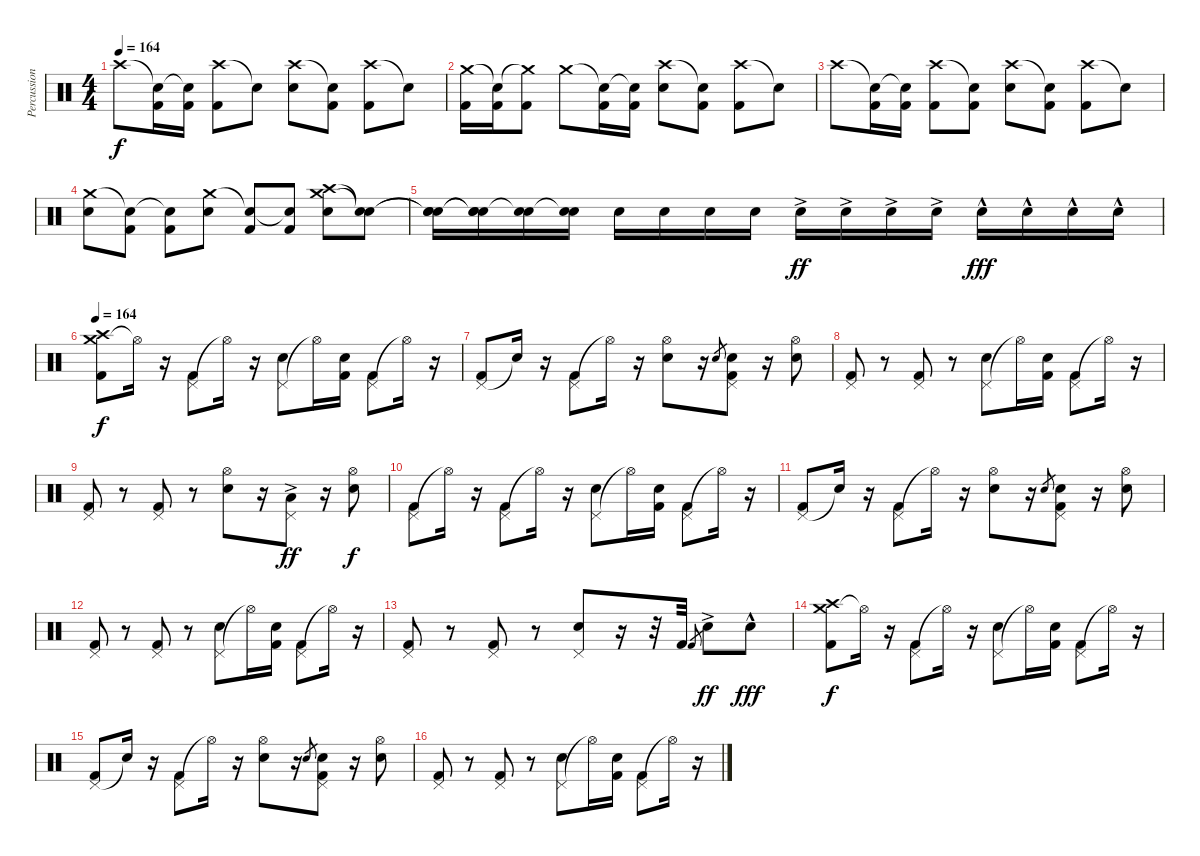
\track ("Percussion" "Percussion") {instrument percussion bank 177}
\staff {score}
\articulation defaults
\ts (4 4)
\tempo 164
\clef neutral
\ks c "Crash high (hit)".8{dy f}
("Snare (hit)"{t} "Kick (hit) 2").16 ("Snare (hit)"{t} "Kick (hit) 2").16 ("Crash high (hit)" "Kick (hit) 2").8 "Snare (hit)"{t}.8 ("Crash high (hit)" "Snare (hit) 2").8 ("Snare (hit)"{t} "Kick (hit) 2").8 ("Crash high (hit)" "Kick (hit) 2").8 "Snare (hit)"{t}.8 |
("Crash medium (hit)" "Kick (hit) 2").16 ("Snare (hit)"{t} "Kick (hit) 2").16 ("Crash medium (hit)"{t} "Kick (hit) 2").8 "Crash medium (hit)".8 ("Snare (hit)"{t} "Kick (hit) 2").16 ("Snare (hit)"{t} "Kick (hit) 2").16 ("Crash high (hit)" "Snare (hit) 2").8 ("Snare (hit)"{t} "Kick (hit) 2").8 ("Crash high (hit)" "Kick (hit) 2").8 "Snare (hit)"{t}.8 |
"Crash high (hit)".8 ("Snare (hit)"{t} "Kick (hit) 2").16 ("Snare (hit)"{t} "Kick (hit) 2").16 ("Crash high (hit)" "Kick (hit) 2").8 ("Snare (hit)"{t} "Kick (hit) 2").8 ("Crash high (hit)" "Snare (hit) 2").8 ("Snare (hit)"{t} "Kick (hit) 2").8 ("Crash high (hit)" "Kick (hit) 2").8 "Snare (hit)"{t}.8 |
("Crash medium (hit)" "Snare (hit) 2").8 ("Snare (hit)"{t} "Kick (hit) 2").8 ("Snare (hit)"{t} "Kick (hit) 2").8 ("Crash medium (hit)" "Snare (hit) 2").8 ("Snare (hit)"{t} "Kick (hit) 2").8 ("Snare (hit)"{t} "Kick (hit) 2").8 ("Crash medium (hit)" "Crash high (hit)" "Snare (hit) 2").8 ("Snare (hit)"{t} "Snare (hit)"{t}).8 |
("Snare (hit)"{t} "Snare (hit)"{t} "Snare (hit) 2").16 ("Snare (hit)"{t} "Snare (hit)"{t} "Snare (hit) 2").16 ("Snare (hit)"{t} "Snare (hit) 2").16 ("Snare (hit)"{t} "Snare (hit) 2").16 "Snare (hit) 2".16 "Snare (hit) 2".16 "Snare (hit) 2".16 "Snare (hit) 2".16 "Snare (hit) 2"{ac}.16{dy ff} "Snare (hit) 2"{ac}.16 "Snare (hit) 2"{ac}.16 "Snare (hit) 2"{ac}.16 "Snare (hit) 2"{hac}.16{dy fff} "Snare (hit) 2"{hac}.16 "Snare (hit) 2"{hac}.16 "Snare (hit) 2"{hac}.16 |
\tempo 164
("Crash medium (hit)" "Crash high (hit)" "Kick (hit) 2").8{dy f} "Hi-Hat (open)"{t}.16 r.16 ("Pedal Hi-Hat (hit)" "Kick (hit) 2").8 "Hi-Hat (open)"{t}.16 r.16 ("Pedal Hi-Hat (hit)" "Snare (hit) 2").8 "Hi-Hat (open)"{t}.16 ("Snare (hit) 2" "Kick (hit) 2").16 ("Pedal Hi-Hat (hit)" "Kick (hit) 2").8 "Hi-Hat (open)"{t}.16 r.16 |
("Pedal Hi-Hat (hit)" "Kick (hit) 2").8 "Snare (hit)"{t}.16 r.16 ("Pedal Hi-Hat (hit)" "Kick (hit) 2").8 "Hi-Hat (open)"{t}.16 r.16 ("Hi-Hat (open)" "Snare (hit) 2").8 r.16 "Snare (hit) 2".8{gr} ("Pedal Hi-Hat (hit)" "Snare (hit) 2" "Kick (hit) 2").8 r.16 ("Hi-Hat (open)" "Snare (hit) 2").8 |
("Pedal Hi-Hat (hit)" "Kick (hit) 2").8 r.8 ("Pedal Hi-Hat (hit)" "Kick (hit) 2").8 r.8 ("Pedal Hi-Hat (hit)" "Snare (hit) 2").8 "Hi-Hat (open)"{t}.16 ("Snare (hit) 2" "Kick (hit) 2").16 ("Pedal Hi-Hat (hit)" "Kick (hit) 2").8 "Hi-Hat (open)"{t}.16 r.16 |
("Pedal Hi-Hat (hit)" "Kick (hit) 2").8 r.8 ("Pedal Hi-Hat (hit)" "Kick (hit) 2").8 r.8 ("Hi-Hat (open)" "Snare (hit) 2").8 r.16 ("Pedal Hi-Hat (hit)" "Low Floor Tom (hit)"{ac}).8{dy ff} r.16 ("Hi-Hat (open)" "Snare (hit) 2").8{dy f} |
("Pedal Hi-Hat (hit)" "Kick (hit) 2").8 "Hi-Hat (open)"{t}.16 r.16 ("Pedal Hi-Hat (hit)" "Kick (hit) 2").8 "Hi-Hat (open)"{t}.16 r.16 ("Pedal Hi-Hat (hit)" "Snare (hit) 2").8 "Hi-Hat (open)"{t}.16 ("Snare (hit) 2" "Kick (hit) 2").16 ("Pedal Hi-Hat (hit)" "Kick (hit) 2").8 "Hi-Hat (open)"{t}.16 r.16 |
("Pedal Hi-Hat (hit)" "Kick (hit) 2").8 "Snare (hit)"{t}.16 r.16 ("Pedal Hi-Hat (hit)" "Kick (hit) 2").8 "Hi-Hat (open)"{t}.16 r.16 ("Hi-Hat (open)" "Snare (hit) 2").8 r.16 "Snare (hit) 2".8{gr} ("Pedal Hi-Hat (hit)" "Snare (hit) 2" "Kick (hit) 2").8 r.16 ("Hi-Hat (open)" "Snare (hit) 2").8 |
("Pedal Hi-Hat (hit)" "Kick (hit) 2").8 r.8 ("Pedal Hi-Hat (hit)" "Kick (hit) 2").8 r.8 ("Pedal Hi-Hat (hit)" "Snare (hit) 2").8 "Hi-Hat (open)"{t}.16 ("Snare (hit) 2" "Kick (hit) 2").16 ("Pedal Hi-Hat (hit)" "Kick (hit) 2").8 "Hi-Hat (open)"{t}.16 r.16 |
("Pedal Hi-Hat (hit)" "Kick (hit) 2").8 r.8 ("Pedal Hi-Hat (hit)" "Kick (hit) 2").8 r.8 ("Pedal Hi-Hat (hit)" "Snare (hit) 2").8 r.16 r.32 "Kick (hit) 2".32 "Kick (hit) 2".8{gr} "Snare (hit) 2"{ac}.8{dy ff} "Snare (hit) 2"{hac}.8{dy fff} |
("Crash medium (hit)" "Crash high (hit)" "Kick (hit) 2").8{dy f} "Hi-Hat (open)"{t}.16 r.16 ("Pedal Hi-Hat (hit)" "Kick (hit) 2").8 "Hi-Hat (open)"{t}.16 r.16 ("Pedal Hi-Hat (hit)" "Snare (hit) 2").8 "Hi-Hat (open)"{t}.16 ("Snare (hit) 2" "Kick (hit) 2").16 ("Pedal Hi-Hat (hit)" "Kick (hit) 2").8 "Hi-Hat (open)"{t}.16 r.16 |
("Pedal Hi-Hat (hit)" "Kick (hit) 2").8 "Snare (hit)"{t}.16 r.16 ("Pedal Hi-Hat (hit)" "Kick (hit) 2").8 "Hi-Hat (open)"{t}.16 r.16 ("Hi-Hat (open)" "Snare (hit) 2").8 r.16 "Snare (hit) 2".8{gr} ("Pedal Hi-Hat (hit)" "Snare (hit) 2" "Kick (hit) 2").8 r.16 ("Hi-Hat (open)" "Snare (hit) 2").8 |
("Pedal Hi-Hat (hit)" "Kick (hit) 2").8 r.8 ("Pedal Hi-Hat (hit)" "Kick (hit) 2").8 r.8 ("Pedal Hi-Hat (hit)" "Snare (hit) 2").8 "Hi-Hat (open)"{t}.16 ("Snare (hit) 2" "Kick (hit) 2").16 ("Pedal Hi-Hat (hit)" "Kick (hit) 2").8 "Hi-Hat (open)"{t}.16 r.16
